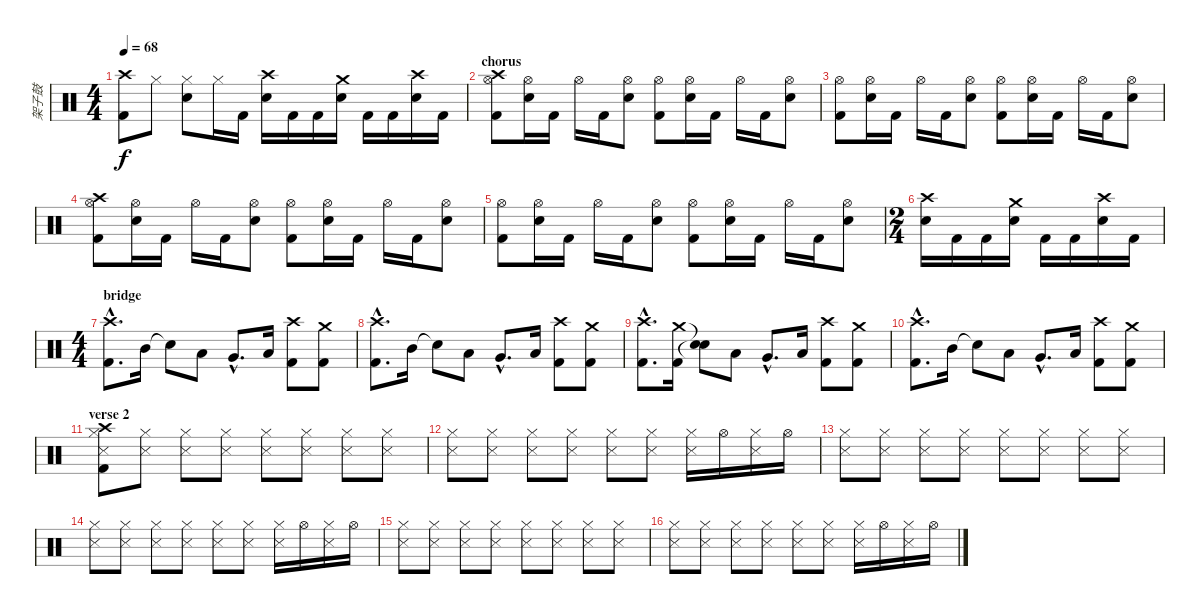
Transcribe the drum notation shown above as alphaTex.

\track ("架子鼓" "架子鼓") {instrument percussion}
\staff {score}
\articulation defaults
\ts (4 4)
\tempo 68
\clef neutral
\ks c
("Crash high (hit)" "Kick (hit) 2").8{dy f} "Hi-Hat (closed)".8 ("Hi-Hat (closed)" "Snare (hit) 2").8 "Hi-Hat (closed)".16 "Kick (hit) 2".16 ("Crash high (hit)" "Snare (hit) 2").16 "Kick (hit) 2".16 "Kick (hit) 2".16 ("Crash medium (hit)" "Snare (hit) 2").16 "Kick (hit) 2".16 "Kick (hit) 2".16 ("Crash high (hit)" "Snare (hit) 2").16 "Kick (hit) 2".16 |
\section ("" "chorus")
("Crash high (hit)" "Hi-Hat (open)" "Kick (hit) 2").8 ("Hi-Hat (open)" "Snare (hit) 2").16 "Kick (hit) 2".16 "Hi-Hat (open)".16 "Kick (hit) 2".16 ("Hi-Hat (open)" "Snare (hit) 2").8 ("Hi-Hat (open)" "Kick (hit) 2").8 ("Hi-Hat (open)" "Snare (hit) 2").16 "Kick (hit) 2".16 "Hi-Hat (open)".16 "Kick (hit) 2".16 ("Hi-Hat (open)" "Snare (hit) 2").8 |
("Hi-Hat (open)" "Kick (hit) 2").8 ("Hi-Hat (open)" "Snare (hit) 2").16 "Kick (hit) 2".16 "Hi-Hat (open)".16 "Kick (hit) 2".16 ("Hi-Hat (open)" "Snare (hit) 2").8 ("Hi-Hat (open)" "Kick (hit) 2").8 ("Hi-Hat (open)" "Snare (hit) 2").16 "Kick (hit) 2".16 "Hi-Hat (open)".16 "Kick (hit) 2".16 ("Hi-Hat (open)" "Snare (hit) 2").8 |
("Crash high (hit)" "Hi-Hat (open)" "Kick (hit) 2").8 ("Hi-Hat (open)" "Snare (hit) 2").16 "Kick (hit) 2".16 "Hi-Hat (open)".16 "Kick (hit) 2".16 ("Hi-Hat (open)" "Snare (hit) 2").8 ("Hi-Hat (open)" "Kick (hit) 2").8 ("Hi-Hat (open)" "Snare (hit) 2").16 "Kick (hit) 2".16 "Hi-Hat (open)".16 "Kick (hit) 2".16 ("Hi-Hat (open)" "Snare (hit) 2").8 |
("Hi-Hat (open)" "Kick (hit) 2").8 ("Hi-Hat (open)" "Snare (hit) 2").16 "Kick (hit) 2".16 "Hi-Hat (open)".16 "Kick (hit) 2".16 ("Hi-Hat (open)" "Snare (hit) 2").8 ("Hi-Hat (open)" "Kick (hit) 2").8 ("Hi-Hat (open)" "Snare (hit) 2").16 "Kick (hit) 2".16 "Hi-Hat (open)".16 "Kick (hit) 2".16 ("Hi-Hat (open)" "Snare (hit) 2").8 |
\ts (2 4)
("Crash high (hit)" "Snare (hit) 2").16 "Kick (hit) 2".16 "Kick (hit) 2".16 ("Crash medium (hit)" "Snare (hit) 2").16 "Kick (hit) 2".16 "Kick (hit) 2".16 ("Crash high (hit)" "Snare (hit) 2").16 "Kick (hit) 2".16 |
\ts (4 4)
\section ("" "bridge")
("Crash high (hit)"{hac} "Kick (hit) 2"{hac}).8{d} "Mid Tom (hit)".16 "Snare (hit)"{t}.8 "Low Tom (hit)".8 "Very Low Tom (hit)"{hac}.8{d} "Low Floor Tom (hit)".16 ("Crash high (hit)" "Kick (hit) 2").8 ("Crash medium (hit)" "Kick (hit) 2").8 |
("Crash high (hit)"{hac} "Kick (hit) 2"{hac}).8{d} "Mid Tom (hit)".16 "Snare (hit)"{t}.8 "Low Tom (hit)".8 "Very Low Tom (hit)"{hac}.8{d} "Low Floor Tom (hit)".16 ("Crash high (hit)" "Kick (hit) 2").8 ("Crash medium (hit)" "Kick (hit) 2").8 |
("Crash high (hit)"{hac} "Kick (hit) 2"{hac}).8{d} ("Crash medium (hit)" "Kick (hit) 2").16 ("Snare (hit)"{t} "Snare (hit)"{t}).8 "Low Tom (hit)".8 "Very Low Tom (hit)"{hac}.8{d} "Low Floor Tom (hit)".16 ("Crash high (hit)" "Kick (hit) 2").8 ("Crash medium (hit)" "Kick (hit) 2").8 |
("Crash high (hit)"{hac} "Kick (hit) 2"{hac}).8{d} "Mid Tom (hit)".16 "Snare (hit)"{t}.8 "Low Tom (hit)".8 "Very Low Tom (hit)"{hac}.8{d} "Low Floor Tom (hit)".16 ("Crash high (hit)" "Kick (hit) 2").8 ("Crash medium (hit)" "Kick (hit) 2").8 |
\section ("" "verse 2")
("Crash high (hit)" "Snare (side stick) 3" "Hi-Hat (closed)" "Kick (hit) 2").8 ("Snare (side stick) 3" "Hi-Hat (closed)").8 ("Snare (side stick) 3" "Hi-Hat (closed)").8 ("Snare (side stick) 3" "Hi-Hat (closed)").8 ("Snare (side stick) 3" "Hi-Hat (closed)").8 ("Snare (side stick) 3" "Hi-Hat (closed)").8 ("Snare (side stick) 3" "Hi-Hat (closed)").8 ("Snare (side stick) 3" "Hi-Hat (closed)").8 |
("Snare (side stick) 3" "Hi-Hat (closed)").8 ("Snare (side stick) 3" "Hi-Hat (closed)").8 ("Snare (side stick) 3" "Hi-Hat (closed)").8 ("Snare (side stick) 3" "Hi-Hat (closed)").8 ("Snare (side stick) 3" "Hi-Hat (closed)").8 ("Snare (side stick) 3" "Hi-Hat (closed)").8 ("Snare (side stick) 3" "Hi-Hat (closed)").16 "Hi-Hat (open)".16 ("Snare (side stick) 3" "Hi-Hat (closed)").16 "Hi-Hat (open)".16 |
("Snare (side stick) 3" "Hi-Hat (closed)").8 ("Snare (side stick) 3" "Hi-Hat (closed)").8 ("Snare (side stick) 3" "Hi-Hat (closed)").8 ("Snare (side stick) 3" "Hi-Hat (closed)").8 ("Snare (side stick) 3" "Hi-Hat (closed)").8 ("Snare (side stick) 3" "Hi-Hat (closed)").8 ("Snare (side stick) 3" "Hi-Hat (closed)").8 ("Snare (side stick) 3" "Hi-Hat (closed)").8 |
("Snare (side stick) 3" "Hi-Hat (closed)").8 ("Snare (side stick) 3" "Hi-Hat (closed)").8 ("Snare (side stick) 3" "Hi-Hat (closed)").8 ("Snare (side stick) 3" "Hi-Hat (closed)").8 ("Snare (side stick) 3" "Hi-Hat (closed)").8 ("Snare (side stick) 3" "Hi-Hat (closed)").8 ("Snare (side stick) 3" "Hi-Hat (closed)").16 "Hi-Hat (open)".16 ("Snare (side stick) 3" "Hi-Hat (closed)").16 "Hi-Hat (open)".16 |
("Snare (side stick) 3" "Hi-Hat (closed)").8 ("Snare (side stick) 3" "Hi-Hat (closed)").8 ("Snare (side stick) 3" "Hi-Hat (closed)").8 ("Snare (side stick) 3" "Hi-Hat (closed)").8 ("Snare (side stick) 3" "Hi-Hat (closed)").8 ("Snare (side stick) 3" "Hi-Hat (closed)").8 ("Snare (side stick) 3" "Hi-Hat (closed)").8 ("Snare (side stick) 3" "Hi-Hat (closed)").8 |
("Snare (side stick) 3" "Hi-Hat (closed)").8 ("Snare (side stick) 3" "Hi-Hat (closed)").8 ("Snare (side stick) 3" "Hi-Hat (closed)").8 ("Snare (side stick) 3" "Hi-Hat (closed)").8 ("Snare (side stick) 3" "Hi-Hat (closed)").8 ("Snare (side stick) 3" "Hi-Hat (closed)").8 ("Snare (side stick) 3" "Hi-Hat (closed)").16 "Hi-Hat (open)".16 ("Snare (side stick) 3" "Hi-Hat (closed)").16 "Hi-Hat (open)".16
